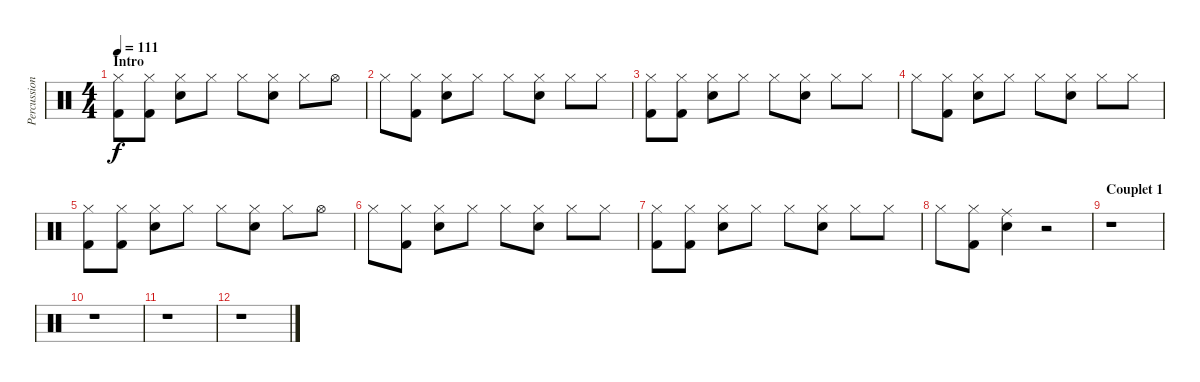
\track ("Percussions" "Percussion") {instrument percussion}
\staff {score}
\articulation defaults
\ts (4 4)
\section ("" "Intro")
\tempo 111
\clef neutral
\ks c
("Hi-Hat (closed)" "Kick (hit) 2").8{dy f} ("Hi-Hat (closed)" "Kick (hit) 2").8 ("Hi-Hat (closed)" "Snare (hit) 2").8 "Hi-Hat (closed)".8 "Hi-Hat (closed)".8 ("Hi-Hat (closed)" "Snare (hit) 2").8 "Hi-Hat (closed)".8 "Hi-Hat (open)".8 |
"Hi-Hat (closed)".8 ("Hi-Hat (closed)" "Kick (hit) 2").8 ("Hi-Hat (closed)" "Snare (hit) 2").8 "Hi-Hat (closed)".8 "Hi-Hat (closed)".8 ("Hi-Hat (closed)" "Snare (hit) 2").8 "Hi-Hat (closed)".8 "Hi-Hat (closed)".8 |
("Hi-Hat (closed)" "Kick (hit) 2").8 ("Hi-Hat (closed)" "Kick (hit) 2").8 ("Hi-Hat (closed)" "Snare (hit) 2").8 "Hi-Hat (closed)".8 "Hi-Hat (closed)".8 ("Hi-Hat (closed)" "Snare (hit) 2").8 "Hi-Hat (closed)".8 "Hi-Hat (closed)".8 |
"Hi-Hat (closed)".8 ("Hi-Hat (closed)" "Kick (hit) 2").8 ("Hi-Hat (closed)" "Snare (hit) 2").8 "Hi-Hat (closed)".8 "Hi-Hat (closed)".8 ("Hi-Hat (closed)" "Snare (hit) 2").8 "Hi-Hat (closed)".8 "Hi-Hat (closed)".8 |
("Hi-Hat (closed)" "Kick (hit) 2").8 ("Hi-Hat (closed)" "Kick (hit) 2").8 ("Hi-Hat (closed)" "Snare (hit) 2").8 "Hi-Hat (closed)".8 "Hi-Hat (closed)".8 ("Hi-Hat (closed)" "Snare (hit) 2").8 "Hi-Hat (closed)".8 "Hi-Hat (open)".8 |
"Hi-Hat (closed)".8 ("Hi-Hat (closed)" "Kick (hit) 2").8 ("Hi-Hat (closed)" "Snare (hit) 2").8 "Hi-Hat (closed)".8 "Hi-Hat (closed)".8 ("Hi-Hat (closed)" "Snare (hit) 2").8 "Hi-Hat (closed)".8 "Hi-Hat (closed)".8 |
("Hi-Hat (closed)" "Kick (hit) 2").8 ("Hi-Hat (closed)" "Kick (hit) 2").8 ("Hi-Hat (closed)" "Snare (hit) 2").8 "Hi-Hat (closed)".8 "Hi-Hat (closed)".8 ("Hi-Hat (closed)" "Snare (hit) 2").8 "Hi-Hat (closed)".8 "Hi-Hat (closed)".8 |
"Hi-Hat (closed)".8 ("Hi-Hat (closed)" "Kick (hit) 2").8 ("Ride (middle)" "Snare (hit) 2").4 r.2 |
\section ("" "Couplet 1")
r.1 |
r.1 |
r.1 |
r.1
